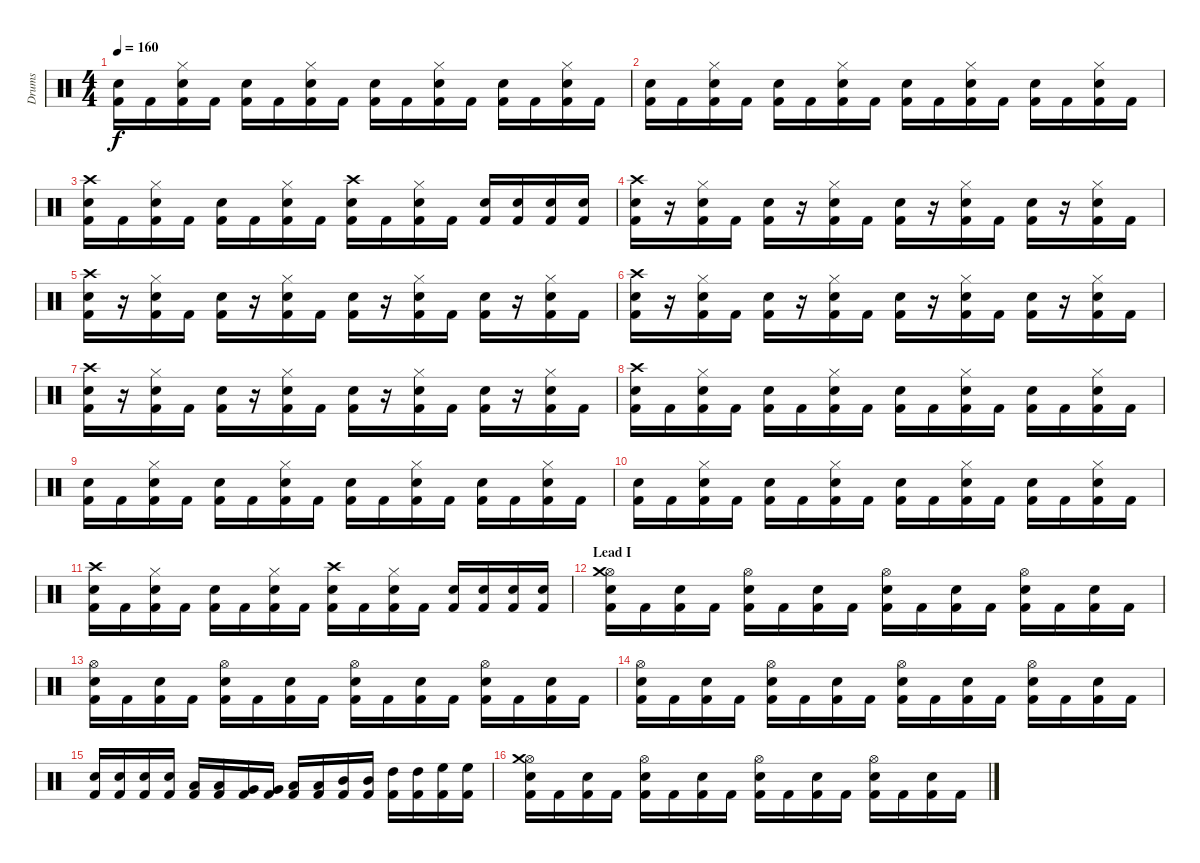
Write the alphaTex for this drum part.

\track ("Drums" "Drums") {instrument percussion}
\staff {score}
\articulation defaults
\ts (4 4)
\tempo 160
\clef neutral
\ks c
("Kick (hit) 2" "Snare (hit) 2").16{dy f} "Kick (hit) 2".16 ("Kick (hit) 2" "Snare (hit) 2" "Hi-Hat (closed)").16 "Kick (hit) 2".16 ("Kick (hit) 2" "Snare (hit) 2").16 "Kick (hit) 2".16 ("Kick (hit) 2" "Snare (hit) 2" "Hi-Hat (closed)").16 "Kick (hit) 2".16 ("Kick (hit) 2" "Snare (hit) 2").16 "Kick (hit) 2".16 ("Kick (hit) 2" "Snare (hit) 2" "Hi-Hat (closed)").16 "Kick (hit) 2".16 ("Kick (hit) 2" "Snare (hit) 2").16 "Kick (hit) 2".16 ("Kick (hit) 2" "Snare (hit) 2" "Hi-Hat (closed)").16 "Kick (hit) 2".16 |
("Kick (hit) 2" "Snare (hit) 2").16 "Kick (hit) 2".16 ("Kick (hit) 2" "Snare (hit) 2" "Hi-Hat (closed)").16 "Kick (hit) 2".16 ("Kick (hit) 2" "Snare (hit) 2").16 "Kick (hit) 2".16 ("Kick (hit) 2" "Snare (hit) 2" "Hi-Hat (closed)").16 "Kick (hit) 2".16 ("Kick (hit) 2" "Snare (hit) 2").16 "Kick (hit) 2".16 ("Kick (hit) 2" "Snare (hit) 2" "Hi-Hat (closed)").16 "Kick (hit) 2".16 ("Kick (hit) 2" "Snare (hit) 2").16 "Kick (hit) 2".16 ("Kick (hit) 2" "Snare (hit) 2" "Hi-Hat (closed)").16 "Kick (hit) 2".16 |
("Kick (hit) 2" "Snare (hit) 2" "Crash high (hit)").16 "Kick (hit) 2".16 ("Kick (hit) 2" "Snare (hit) 2" "Hi-Hat (closed)").16 "Kick (hit) 2".16 ("Kick (hit) 2" "Snare (hit) 2").16 "Kick (hit) 2".16 ("Kick (hit) 2" "Snare (hit) 2" "Hi-Hat (closed)").16 "Kick (hit) 2".16 ("Kick (hit) 2" "Snare (hit) 2" "Crash high (hit)").16 "Kick (hit) 2".16 ("Kick (hit) 2" "Snare (hit) 2" "Hi-Hat (closed)").16 "Kick (hit) 2".16 ("Kick (hit) 2" "Snare (hit) 2").16 ("Kick (hit) 2" "Snare (hit) 2").16 ("Kick (hit) 2" "Snare (hit) 2").16 ("Kick (hit) 2" "Snare (hit) 2").16 |
("Kick (hit) 2" "Snare (hit) 2" "Crash high (hit)").16 r.16 ("Kick (hit) 2" "Snare (hit) 2" "Hi-Hat (closed)").16 "Kick (hit) 2".16 ("Kick (hit) 2" "Snare (hit) 2").16 r.16 ("Kick (hit) 2" "Snare (hit) 2" "Hi-Hat (closed)").16 "Kick (hit) 2".16 ("Kick (hit) 2" "Snare (hit) 2").16 r.16 ("Kick (hit) 2" "Snare (hit) 2" "Hi-Hat (closed)").16 "Kick (hit) 2".16 ("Kick (hit) 2" "Snare (hit) 2").16 r.16 ("Kick (hit) 2" "Snare (hit) 2" "Hi-Hat (closed)").16 "Kick (hit) 2".16 |
("Kick (hit) 2" "Snare (hit) 2" "Crash high (hit)").16 r.16 ("Kick (hit) 2" "Snare (hit) 2" "Hi-Hat (closed)").16 "Kick (hit) 2".16 ("Kick (hit) 2" "Snare (hit) 2").16 r.16 ("Kick (hit) 2" "Snare (hit) 2" "Hi-Hat (closed)").16 "Kick (hit) 2".16 ("Kick (hit) 2" "Snare (hit) 2").16 r.16 ("Kick (hit) 2" "Snare (hit) 2" "Hi-Hat (closed)").16 "Kick (hit) 2".16 ("Kick (hit) 2" "Snare (hit) 2").16 r.16 ("Kick (hit) 2" "Snare (hit) 2" "Hi-Hat (closed)").16 "Kick (hit) 2".16 |
("Kick (hit) 2" "Snare (hit) 2" "Crash high (hit)").16 r.16 ("Kick (hit) 2" "Snare (hit) 2" "Hi-Hat (closed)").16 "Kick (hit) 2".16 ("Kick (hit) 2" "Snare (hit) 2").16 r.16 ("Kick (hit) 2" "Snare (hit) 2" "Hi-Hat (closed)").16 "Kick (hit) 2".16 ("Kick (hit) 2" "Snare (hit) 2").16 r.16 ("Kick (hit) 2" "Snare (hit) 2" "Hi-Hat (closed)").16 "Kick (hit) 2".16 ("Kick (hit) 2" "Snare (hit) 2").16 r.16 ("Kick (hit) 2" "Snare (hit) 2" "Hi-Hat (closed)").16 "Kick (hit) 2".16 |
("Kick (hit) 2" "Snare (hit) 2" "Crash high (hit)").16 r.16 ("Kick (hit) 2" "Snare (hit) 2" "Hi-Hat (closed)").16 "Kick (hit) 2".16 ("Kick (hit) 2" "Snare (hit) 2").16 r.16 ("Kick (hit) 2" "Snare (hit) 2" "Hi-Hat (closed)").16 "Kick (hit) 2".16 ("Kick (hit) 2" "Snare (hit) 2").16 r.16 ("Kick (hit) 2" "Snare (hit) 2" "Hi-Hat (closed)").16 "Kick (hit) 2".16 ("Kick (hit) 2" "Snare (hit) 2").16 r.16 ("Kick (hit) 2" "Snare (hit) 2" "Hi-Hat (closed)").16 "Kick (hit) 2".16 |
("Kick (hit) 2" "Snare (hit) 2" "Crash high (hit)").16 "Kick (hit) 2".16 ("Kick (hit) 2" "Snare (hit) 2" "Hi-Hat (closed)").16 "Kick (hit) 2".16 ("Kick (hit) 2" "Snare (hit) 2").16 "Kick (hit) 2".16 ("Kick (hit) 2" "Snare (hit) 2" "Hi-Hat (closed)").16 "Kick (hit) 2".16 ("Kick (hit) 2" "Snare (hit) 2").16 "Kick (hit) 2".16 ("Kick (hit) 2" "Snare (hit) 2" "Hi-Hat (closed)").16 "Kick (hit) 2".16 ("Kick (hit) 2" "Snare (hit) 2").16 "Kick (hit) 2".16 ("Kick (hit) 2" "Snare (hit) 2" "Hi-Hat (closed)").16 "Kick (hit) 2".16 |
("Kick (hit) 2" "Snare (hit) 2").16 "Kick (hit) 2".16 ("Kick (hit) 2" "Snare (hit) 2" "Hi-Hat (closed)").16 "Kick (hit) 2".16 ("Kick (hit) 2" "Snare (hit) 2").16 "Kick (hit) 2".16 ("Kick (hit) 2" "Snare (hit) 2" "Hi-Hat (closed)").16 "Kick (hit) 2".16 ("Kick (hit) 2" "Snare (hit) 2").16 "Kick (hit) 2".16 ("Kick (hit) 2" "Snare (hit) 2" "Hi-Hat (closed)").16 "Kick (hit) 2".16 ("Kick (hit) 2" "Snare (hit) 2").16 "Kick (hit) 2".16 ("Kick (hit) 2" "Snare (hit) 2" "Hi-Hat (closed)").16 "Kick (hit) 2".16 |
("Kick (hit) 2" "Snare (hit) 2").16 "Kick (hit) 2".16 ("Kick (hit) 2" "Snare (hit) 2" "Hi-Hat (closed)").16 "Kick (hit) 2".16 ("Kick (hit) 2" "Snare (hit) 2").16 "Kick (hit) 2".16 ("Kick (hit) 2" "Snare (hit) 2" "Hi-Hat (closed)").16 "Kick (hit) 2".16 ("Kick (hit) 2" "Snare (hit) 2").16 "Kick (hit) 2".16 ("Kick (hit) 2" "Snare (hit) 2" "Hi-Hat (closed)").16 "Kick (hit) 2".16 ("Kick (hit) 2" "Snare (hit) 2").16 "Kick (hit) 2".16 ("Kick (hit) 2" "Snare (hit) 2" "Hi-Hat (closed)").16 "Kick (hit) 2".16 |
("Kick (hit) 2" "Snare (hit) 2" "Crash high (hit)").16 "Kick (hit) 2".16 ("Kick (hit) 2" "Snare (hit) 2" "Hi-Hat (closed)").16 "Kick (hit) 2".16 ("Kick (hit) 2" "Snare (hit) 2").16 "Kick (hit) 2".16 ("Kick (hit) 2" "Snare (hit) 2" "Hi-Hat (closed)").16 "Kick (hit) 2".16 ("Kick (hit) 2" "Snare (hit) 2" "Crash high (hit)").16 "Kick (hit) 2".16 ("Kick (hit) 2" "Snare (hit) 2" "Hi-Hat (closed)").16 "Kick (hit) 2".16 ("Kick (hit) 2" "Snare (hit) 2").16 ("Kick (hit) 2" "Snare (hit) 2").16 ("Kick (hit) 2" "Snare (hit) 2").16 ("Kick (hit) 2" "Snare (hit) 2").16 |
\section ("" "Lead I")
("Kick (hit) 2" "Snare (hit) 2" "Hi-Hat (open)" "Crash medium (hit)").16 "Kick (hit) 2".16 ("Kick (hit) 2" "Snare (hit) 2").16 "Kick (hit) 2".16 ("Kick (hit) 2" "Snare (hit) 2" "Hi-Hat (open)").16 "Kick (hit) 2".16 ("Kick (hit) 2" "Snare (hit) 2").16 "Kick (hit) 2".16 ("Kick (hit) 2" "Snare (hit) 2" "Hi-Hat (open)").16 "Kick (hit) 2".16 ("Kick (hit) 2" "Snare (hit) 2").16 "Kick (hit) 2".16 ("Kick (hit) 2" "Snare (hit) 2" "Hi-Hat (open)").16 "Kick (hit) 2".16 ("Kick (hit) 2" "Snare (hit) 2").16 "Kick (hit) 2".16 |
("Kick (hit) 2" "Snare (hit) 2" "Hi-Hat (open)").16 "Kick (hit) 2".16 ("Kick (hit) 2" "Snare (hit) 2").16 "Kick (hit) 2".16 ("Kick (hit) 2" "Snare (hit) 2" "Hi-Hat (open)").16 "Kick (hit) 2".16 ("Kick (hit) 2" "Snare (hit) 2").16 "Kick (hit) 2".16 ("Kick (hit) 2" "Snare (hit) 2" "Hi-Hat (open)").16 "Kick (hit) 2".16 ("Kick (hit) 2" "Snare (hit) 2").16 "Kick (hit) 2".16 ("Kick (hit) 2" "Snare (hit) 2" "Hi-Hat (open)").16 "Kick (hit) 2".16 ("Kick (hit) 2" "Snare (hit) 2").16 "Kick (hit) 2".16 |
("Kick (hit) 2" "Snare (hit) 2" "Hi-Hat (open)").16 "Kick (hit) 2".16 ("Kick (hit) 2" "Snare (hit) 2").16 "Kick (hit) 2".16 ("Kick (hit) 2" "Snare (hit) 2" "Hi-Hat (open)").16 "Kick (hit) 2".16 ("Kick (hit) 2" "Snare (hit) 2").16 "Kick (hit) 2".16 ("Kick (hit) 2" "Snare (hit) 2" "Hi-Hat (open)").16 "Kick (hit) 2".16 ("Kick (hit) 2" "Snare (hit) 2").16 "Kick (hit) 2".16 ("Kick (hit) 2" "Snare (hit) 2" "Hi-Hat (open)").16 "Kick (hit) 2".16 ("Kick (hit) 2" "Snare (hit) 2").16 "Kick (hit) 2".16 |
("Kick (hit) 2" "Snare (hit) 2").16 ("Kick (hit) 2" "Snare (hit) 2").16 ("Kick (hit) 2" "Snare (hit) 2").16 ("Kick (hit) 2" "Snare (hit) 2").16 ("Kick (hit) 2" "Low Floor Tom (hit)").16 ("Kick (hit) 2" "Low Floor Tom (hit)").16 ("Kick (hit) 2" "Very Low Tom (hit)").16 ("Kick (hit) 2" "Very Low Tom (hit)").16 ("Kick (hit) 2" "Low Tom (hit)").16 ("Kick (hit) 2" "Low Tom (hit)").16 ("Kick (hit) 2" "Mid Tom (hit)").16 ("Kick (hit) 2" "Mid Tom (hit)").16 ("Kick (hit) 2" "High Tom (hit)").16 ("Kick (hit) 2" "High Tom (hit)").16 ("Kick (hit) 2" "High Floor Tom (hit)").16 ("Kick (hit) 2" "High Floor Tom (hit)").16 |
("Kick (hit) 2" "Snare (hit) 2" "Hi-Hat (open)" "Crash medium (hit)").16 "Kick (hit) 2".16 ("Kick (hit) 2" "Snare (hit) 2").16 "Kick (hit) 2".16 ("Kick (hit) 2" "Snare (hit) 2" "Hi-Hat (open)").16 "Kick (hit) 2".16 ("Kick (hit) 2" "Snare (hit) 2").16 "Kick (hit) 2".16 ("Kick (hit) 2" "Snare (hit) 2" "Hi-Hat (open)").16 "Kick (hit) 2".16 ("Kick (hit) 2" "Snare (hit) 2").16 "Kick (hit) 2".16 ("Kick (hit) 2" "Snare (hit) 2" "Hi-Hat (open)").16 "Kick (hit) 2".16 ("Kick (hit) 2" "Snare (hit) 2").16 "Kick (hit) 2".16
